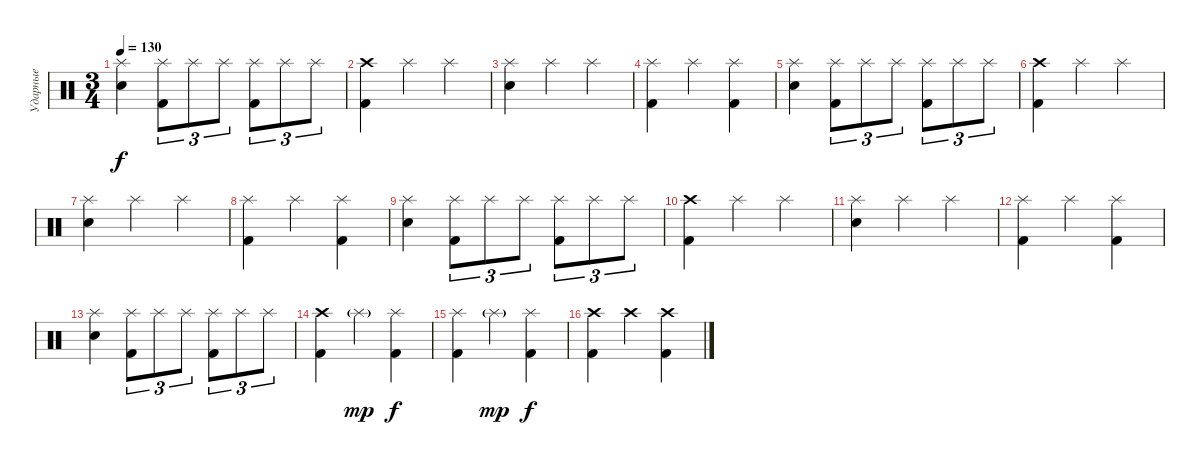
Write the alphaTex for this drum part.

\track ("Ударные" "Ударные") {instrument percussion}
\staff {score}
\articulation defaults
\ts (3 4)
\tempo 130
\clef neutral
\ks c
("Splash (hit)" "Electric Snare (hit)").4{dy f} ("Splash (hit)" "Kick (hit) 2").8{tu (3 2)} "Splash (hit)".8{tu (3 2)} "Splash (hit)".8{tu (3 2)} ("Splash (hit)" "Kick (hit) 2").8{tu (3 2)} "Splash (hit)".8{tu (3 2)} "Splash (hit)".8{tu (3 2)} |
("Crash high (hit)" "Kick (hit) 2").4 "Splash (hit)".4 "Splash (hit)".4 |
("Splash (hit)" "Electric Snare (hit)").4 "Splash (hit)".4 "Splash (hit)".4 |
("Splash (hit)" "Kick (hit) 2").4 "Splash (hit)".4 ("Splash (hit)" "Kick (hit) 2").4 |
("Splash (hit)" "Electric Snare (hit)").4 ("Splash (hit)" "Kick (hit) 2").8{tu (3 2)} "Splash (hit)".8{tu (3 2)} "Splash (hit)".8{tu (3 2)} ("Splash (hit)" "Kick (hit) 2").8{tu (3 2)} "Splash (hit)".8{tu (3 2)} "Splash (hit)".8{tu (3 2)} |
("Crash high (hit)" "Kick (hit) 2").4 "Splash (hit)".4 "Splash (hit)".4 |
("Splash (hit)" "Electric Snare (hit)").4 "Splash (hit)".4 "Splash (hit)".4 |
("Splash (hit)" "Kick (hit) 2").4 "Splash (hit)".4 ("Splash (hit)" "Kick (hit) 2").4 |
("Splash (hit)" "Electric Snare (hit)").4 ("Splash (hit)" "Kick (hit) 2").8{tu (3 2)} "Splash (hit)".8{tu (3 2)} "Splash (hit)".8{tu (3 2)} ("Splash (hit)" "Kick (hit) 2").8{tu (3 2)} "Splash (hit)".8{tu (3 2)} "Splash (hit)".8{tu (3 2)} |
("Crash high (hit)" "Kick (hit) 2").4 "Splash (hit)".4 "Splash (hit)".4 |
("Splash (hit)" "Electric Snare (hit)").4 "Splash (hit)".4 "Splash (hit)".4 |
("Splash (hit)" "Kick (hit) 2").4 "Splash (hit)".4 ("Splash (hit)" "Kick (hit) 2").4 |
("Splash (hit)" "Electric Snare (hit)").4 ("Splash (hit)" "Kick (hit) 2").8{tu (3 2)} "Splash (hit)".8{tu (3 2)} "Splash (hit)".8{tu (3 2)} ("Splash (hit)" "Kick (hit) 2").8{tu (3 2)} "Splash (hit)".8{tu (3 2)} "Splash (hit)".8{tu (3 2)} |
("Crash high (hit)" "Kick (hit) 2").4 "Splash (hit)"{g}.4{dy mp} ("Splash (hit)" "Kick (hit) 2").4{dy f} |
("Splash (hit)" "Kick (hit) 2").4 "Splash (hit)"{g}.4{dy mp} ("Splash (hit)" "Kick (hit) 2").4{dy f} |
("Crash high (hit)" "Kick (hit) 2").4 "Crash high (hit)".4 ("Crash high (hit)" "Kick (hit) 2").4
